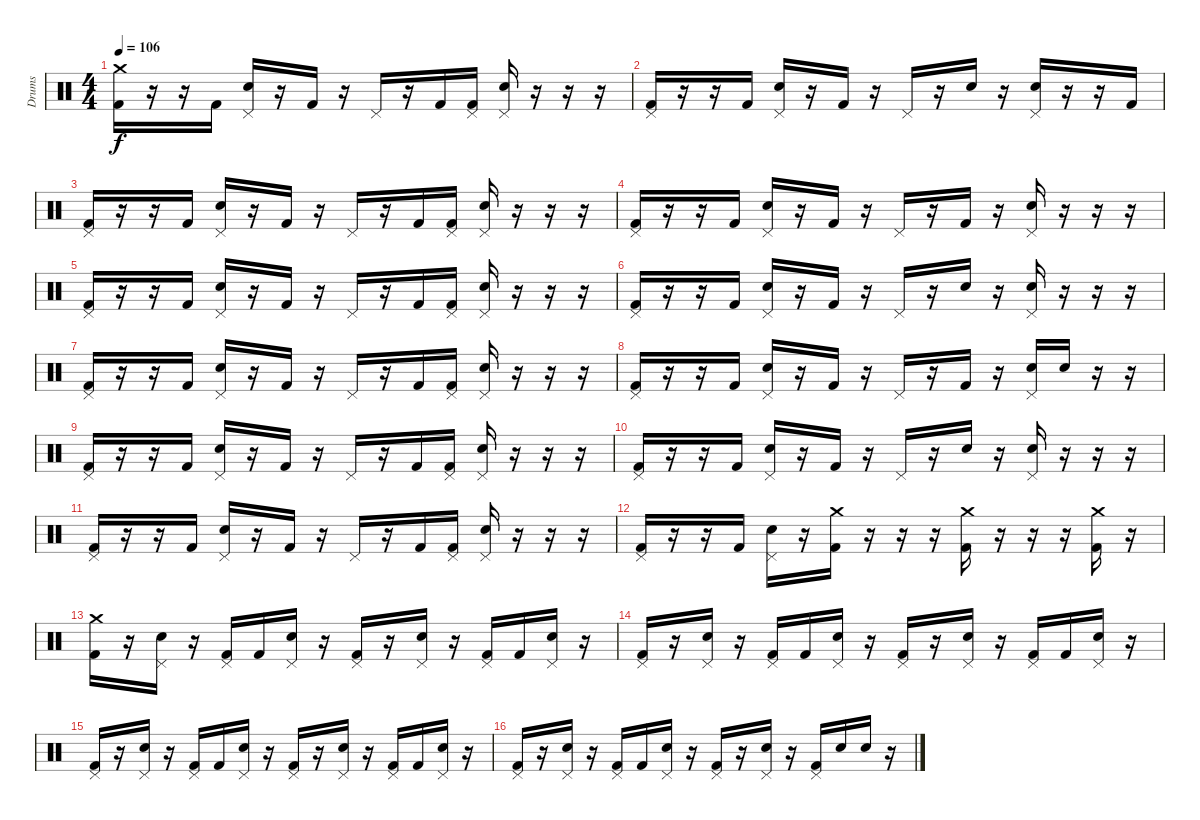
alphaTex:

\track ("Drums" "Drums") {instrument percussion}
\staff {score}
\articulation defaults
\ts (4 4)
\tempo 106
\clef neutral
\ks c
("Kick (hit) 2" "Crash medium (hit)").16{dy f} r.16 r.16 "Kick (hit) 2".16 ("Pedal Hi-Hat (hit)" "Electric Snare (hit)").16 r.16 "Kick (hit) 2".16 r.16 "Pedal Hi-Hat (hit)".16 r.16 "Kick (hit) 2".16 ("Kick (hit) 2" "Pedal Hi-Hat (hit)").16 ("Pedal Hi-Hat (hit)" "Electric Snare (hit)").16 r.16 r.16 r.16 |
("Kick (hit) 2" "Pedal Hi-Hat (hit)").16 r.16 r.16 "Kick (hit) 2".16 ("Pedal Hi-Hat (hit)" "Electric Snare (hit)").16 r.16 "Kick (hit) 2".16 r.16 "Pedal Hi-Hat (hit)".16 r.16 "Electric Snare (hit)".16 r.16 ("Pedal Hi-Hat (hit)" "Electric Snare (hit)").16 r.16 r.16 "Kick (hit) 2".16 |
("Kick (hit) 2" "Pedal Hi-Hat (hit)").16 r.16 r.16 "Kick (hit) 2".16 ("Pedal Hi-Hat (hit)" "Electric Snare (hit)").16 r.16 "Kick (hit) 2".16 r.16 "Pedal Hi-Hat (hit)".16 r.16 "Kick (hit) 2".16 ("Kick (hit) 2" "Pedal Hi-Hat (hit)").16 ("Pedal Hi-Hat (hit)" "Electric Snare (hit)").16 r.16 r.16 r.16 |
("Kick (hit) 2" "Pedal Hi-Hat (hit)").16 r.16 r.16 "Kick (hit) 2".16 ("Pedal Hi-Hat (hit)" "Electric Snare (hit)").16 r.16 "Kick (hit) 2".16 r.16 "Pedal Hi-Hat (hit)".16 r.16 "Kick (hit) 2".16 r.16 ("Pedal Hi-Hat (hit)" "Electric Snare (hit)").16 r.16 r.16 r.16 |
("Kick (hit) 2" "Pedal Hi-Hat (hit)").16 r.16 r.16 "Kick (hit) 2".16 ("Pedal Hi-Hat (hit)" "Electric Snare (hit)").16 r.16 "Kick (hit) 2".16 r.16 "Pedal Hi-Hat (hit)".16 r.16 "Kick (hit) 2".16 ("Kick (hit) 2" "Pedal Hi-Hat (hit)").16 ("Pedal Hi-Hat (hit)" "Electric Snare (hit)").16 r.16 r.16 r.16 |
("Kick (hit) 2" "Pedal Hi-Hat (hit)").16 r.16 r.16 "Kick (hit) 2".16 ("Pedal Hi-Hat (hit)" "Electric Snare (hit)").16 r.16 "Kick (hit) 2".16 r.16 "Pedal Hi-Hat (hit)".16 r.16 "Electric Snare (hit)".16 r.16 ("Pedal Hi-Hat (hit)" "Electric Snare (hit)").16 r.16 r.16 r.16 |
("Kick (hit) 2" "Pedal Hi-Hat (hit)").16 r.16 r.16 "Kick (hit) 2".16 ("Pedal Hi-Hat (hit)" "Electric Snare (hit)").16 r.16 "Kick (hit) 2".16 r.16 "Pedal Hi-Hat (hit)".16 r.16 "Kick (hit) 2".16 ("Kick (hit) 2" "Pedal Hi-Hat (hit)").16 ("Pedal Hi-Hat (hit)" "Electric Snare (hit)").16 r.16 r.16 r.16 |
("Kick (hit) 2" "Pedal Hi-Hat (hit)").16 r.16 r.16 "Kick (hit) 2".16 ("Pedal Hi-Hat (hit)" "Electric Snare (hit)").16 r.16 "Kick (hit) 2".16 r.16 "Pedal Hi-Hat (hit)".16 r.16 "Kick (hit) 2".16 r.16 ("Pedal Hi-Hat (hit)" "Electric Snare (hit)").16 "Electric Snare (hit)".16 r.16 r.16 |
("Kick (hit) 2" "Pedal Hi-Hat (hit)").16 r.16 r.16 "Kick (hit) 2".16 ("Pedal Hi-Hat (hit)" "Electric Snare (hit)").16 r.16 "Kick (hit) 2".16 r.16 "Pedal Hi-Hat (hit)".16 r.16 "Kick (hit) 2".16 ("Kick (hit) 2" "Pedal Hi-Hat (hit)").16 ("Pedal Hi-Hat (hit)" "Electric Snare (hit)").16 r.16 r.16 r.16 |
("Kick (hit) 2" "Pedal Hi-Hat (hit)").16 r.16 r.16 "Kick (hit) 2".16 ("Pedal Hi-Hat (hit)" "Electric Snare (hit)").16 r.16 "Kick (hit) 2".16 r.16 "Pedal Hi-Hat (hit)".16 r.16 "Electric Snare (hit)".16 r.16 ("Pedal Hi-Hat (hit)" "Electric Snare (hit)").16 r.16 r.16 r.16 |
("Kick (hit) 2" "Pedal Hi-Hat (hit)").16 r.16 r.16 "Kick (hit) 2".16 ("Pedal Hi-Hat (hit)" "Electric Snare (hit)").16 r.16 "Kick (hit) 2".16 r.16 "Pedal Hi-Hat (hit)".16 r.16 "Kick (hit) 2".16 ("Kick (hit) 2" "Pedal Hi-Hat (hit)").16 ("Pedal Hi-Hat (hit)" "Electric Snare (hit)").16 r.16 r.16 r.16 |
("Kick (hit) 2" "Pedal Hi-Hat (hit)").16 r.16 r.16 "Kick (hit) 2".16 ("Pedal Hi-Hat (hit)" "Electric Snare (hit)").16 r.16 ("Kick (hit) 2" "Crash medium (hit)").16 r.16 r.16 r.16 ("Kick (hit) 2" "Crash medium (hit)").16 r.16 r.16 r.16 ("Kick (hit) 2" "Crash medium (hit)").16 r.16 |
("Kick (hit) 2" "Crash medium (hit)").16 r.16 ("Pedal Hi-Hat (hit)" "Electric Snare (hit)").16 r.16 ("Kick (hit) 2" "Pedal Hi-Hat (hit)").16 "Kick (hit) 2".16 ("Pedal Hi-Hat (hit)" "Electric Snare (hit)").16 r.16 ("Kick (hit) 2" "Pedal Hi-Hat (hit)").16 r.16 ("Pedal Hi-Hat (hit)" "Electric Snare (hit)").16 r.16 ("Kick (hit) 2" "Pedal Hi-Hat (hit)").16 "Kick (hit) 2".16 ("Pedal Hi-Hat (hit)" "Electric Snare (hit)").16 r.16 |
("Kick (hit) 2" "Pedal Hi-Hat (hit)").16 r.16 ("Pedal Hi-Hat (hit)" "Electric Snare (hit)").16 r.16 ("Kick (hit) 2" "Pedal Hi-Hat (hit)").16 "Kick (hit) 2".16 ("Pedal Hi-Hat (hit)" "Electric Snare (hit)").16 r.16 ("Kick (hit) 2" "Pedal Hi-Hat (hit)").16 r.16 ("Pedal Hi-Hat (hit)" "Electric Snare (hit)").16 r.16 ("Kick (hit) 2" "Pedal Hi-Hat (hit)").16 "Kick (hit) 2".16 ("Pedal Hi-Hat (hit)" "Electric Snare (hit)").16 r.16 |
("Kick (hit) 2" "Pedal Hi-Hat (hit)").16 r.16 ("Pedal Hi-Hat (hit)" "Electric Snare (hit)").16 r.16 ("Kick (hit) 2" "Pedal Hi-Hat (hit)").16 "Kick (hit) 2".16 ("Pedal Hi-Hat (hit)" "Electric Snare (hit)").16 r.16 ("Kick (hit) 2" "Pedal Hi-Hat (hit)").16 r.16 ("Pedal Hi-Hat (hit)" "Electric Snare (hit)").16 r.16 ("Kick (hit) 2" "Pedal Hi-Hat (hit)").16 "Kick (hit) 2".16 ("Pedal Hi-Hat (hit)" "Electric Snare (hit)").16 r.16 |
("Kick (hit) 2" "Pedal Hi-Hat (hit)").16 r.16 ("Pedal Hi-Hat (hit)" "Electric Snare (hit)").16 r.16 ("Kick (hit) 2" "Pedal Hi-Hat (hit)").16 "Kick (hit) 2".16 ("Pedal Hi-Hat (hit)" "Electric Snare (hit)").16 r.16 ("Kick (hit) 2" "Pedal Hi-Hat (hit)").16 r.16 ("Pedal Hi-Hat (hit)" "Electric Snare (hit)").16 r.16 ("Kick (hit) 2" "Pedal Hi-Hat (hit)").16 "Electric Snare (hit)".16 "Electric Snare (hit)".16 r.16
